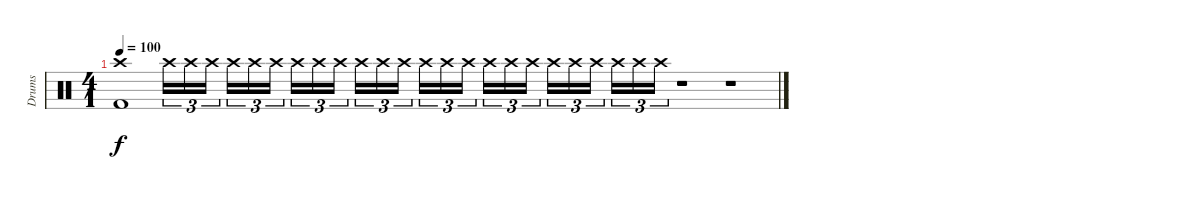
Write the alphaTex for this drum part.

\track ("Drums" "Drums") {instrument percussion}
\staff {score}
\articulation defaults
\ts (4 1)
\tempo 100
\clef neutral
\ks c
("Crash high (hit)" "Kick (hit) 2").1{dy f} "Crash high (hit)".16{tu (3 2)} "Crash high (hit)".16{tu (3 2)} "Crash high (hit)".16{tu (3 2)} "Crash high (hit)".16{tu (3 2)} "Crash high (hit)".16{tu (3 2)} "Crash high (hit)".16{tu (3 2)} "Crash high (hit)".16{tu (3 2)} "Crash high (hit)".16{tu (3 2)} "Crash high (hit)".16{tu (3 2)} "Crash high (hit)".16{tu (3 2)} "Crash high (hit)".16{tu (3 2)} "Crash high (hit)".16{tu (3 2)} "Crash high (hit)".16{tu (3 2)} "Crash high (hit)".16{tu (3 2)} "Crash high (hit)".16{tu (3 2)} "Crash high (hit)".16{tu (3 2)} "Crash high (hit)".16{tu (3 2)} "Crash high (hit)".16{tu (3 2)} "Crash high (hit)".16{tu (3 2)} "Crash high (hit)".16{tu (3 2)} "Crash high (hit)".16{tu (3 2)} "Crash high (hit)".16{tu (3 2)} "Crash high (hit)".16{tu (3 2)} "Crash high (hit)".16{tu (3 2)} r.1 r.1
